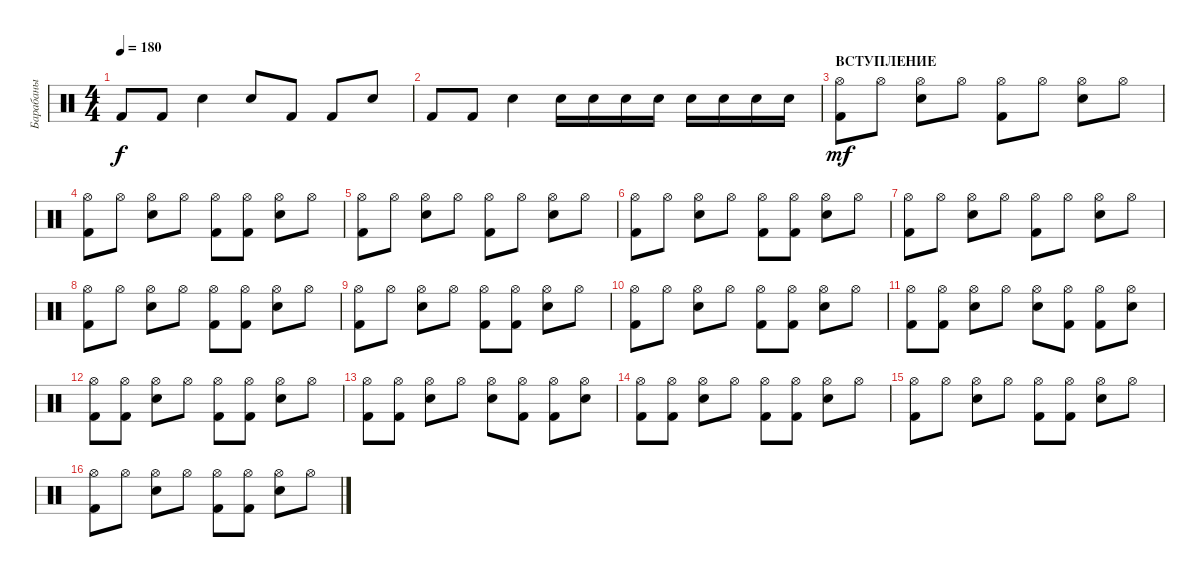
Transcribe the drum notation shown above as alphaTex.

\track ("Барабаны" "Барабаны") {instrument percussion}
\staff {score}
\articulation defaults
\ts (4 4)
\tempo 180
\clef neutral
\ks c "Kick (hit) 2".8{dy f} "Kick (hit) 2".8 "Snare (hit) 2".4 "Snare (hit) 2".8 "Kick (hit) 2".8 "Kick (hit) 2".8 "Snare (hit) 2".8
|
"Kick (hit) 2".8 "Kick (hit) 2".8 "Snare (hit) 2".4 "Snare (hit) 2".16 "Snare (hit) 2".16 "Snare (hit) 2".16 "Snare (hit) 2".16 "Snare (hit) 2".16 "Snare (hit) 2".16 "Snare (hit) 2".16 "Snare (hit) 2".16 |
\section ("" "ВСТУПЛЕНИЕ")
("Hi-Hat (open)" "Kick (hit) 2").8{dy mf} "Hi-Hat (open)".8 ("Hi-Hat (open)" "Snare (hit) 2").8 "Hi-Hat (open)".8 ("Hi-Hat (open)" "Kick (hit) 2").8 "Hi-Hat (open)".8 ("Hi-Hat (open)" "Snare (hit) 2").8 "Hi-Hat (open)".8 |
("Hi-Hat (open)" "Kick (hit) 2").8 "Hi-Hat (open)".8 ("Hi-Hat (open)" "Snare (hit) 2").8 "Hi-Hat (open)".8 ("Hi-Hat (open)" "Kick (hit) 2").8 ("Hi-Hat (open)" "Kick (hit) 2").8 ("Hi-Hat (open)" "Snare (hit) 2").8 "Hi-Hat (open)".8 |
("Hi-Hat (open)" "Kick (hit) 2").8 "Hi-Hat (open)".8 ("Hi-Hat (open)" "Snare (hit) 2").8 "Hi-Hat (open)".8 ("Hi-Hat (open)" "Kick (hit) 2").8 "Hi-Hat (open)".8 ("Hi-Hat (open)" "Snare (hit) 2").8 "Hi-Hat (open)".8 |
("Hi-Hat (open)" "Kick (hit) 2").8 "Hi-Hat (open)".8 ("Hi-Hat (open)" "Snare (hit) 2").8 "Hi-Hat (open)".8 ("Hi-Hat (open)" "Kick (hit) 2").8 ("Hi-Hat (open)" "Kick (hit) 2").8 ("Hi-Hat (open)" "Snare (hit) 2").8 "Hi-Hat (open)".8 |
("Hi-Hat (open)" "Kick (hit) 2").8 "Hi-Hat (open)".8 ("Hi-Hat (open)" "Snare (hit) 2").8 "Hi-Hat (open)".8 ("Hi-Hat (open)" "Kick (hit) 2").8 "Hi-Hat (open)".8 ("Hi-Hat (open)" "Snare (hit) 2").8 "Hi-Hat (open)".8 |
("Hi-Hat (open)" "Kick (hit) 2").8 "Hi-Hat (open)".8 ("Hi-Hat (open)" "Snare (hit) 2").8 "Hi-Hat (open)".8 ("Hi-Hat (open)" "Kick (hit) 2").8 ("Hi-Hat (open)" "Kick (hit) 2").8 ("Hi-Hat (open)" "Snare (hit) 2").8 "Hi-Hat (open)".8 |
("Hi-Hat (open)" "Kick (hit) 2").8 "Hi-Hat (open)".8 ("Hi-Hat (open)" "Snare (hit) 2").8 "Hi-Hat (open)".8 ("Hi-Hat (open)" "Kick (hit) 2").8 ("Hi-Hat (open)" "Kick (hit) 2").8 ("Hi-Hat (open)" "Snare (hit) 2").8 "Hi-Hat (open)".8 |
("Hi-Hat (open)" "Kick (hit) 2").8 "Hi-Hat (open)".8 ("Hi-Hat (open)" "Snare (hit) 2").8 "Hi-Hat (open)".8 ("Hi-Hat (open)" "Kick (hit) 2").8 ("Hi-Hat (open)" "Kick (hit) 2").8 ("Hi-Hat (open)" "Snare (hit) 2").8 "Hi-Hat (open)".8 |
("Hi-Hat (open)" "Kick (hit) 2").8 ("Hi-Hat (open)" "Kick (hit) 2").8 ("Hi-Hat (open)" "Snare (hit) 2").8 "Hi-Hat (open)".8 ("Hi-Hat (open)" "Snare (hit) 2").8 ("Hi-Hat (open)" "Kick (hit) 2").8 ("Hi-Hat (open)" "Kick (hit) 2").8 ("Hi-Hat (open)" "Snare (hit) 2").8 |
("Hi-Hat (open)" "Kick (hit) 2").8 ("Hi-Hat (open)" "Kick (hit) 2").8 ("Hi-Hat (open)" "Snare (hit) 2").8 "Hi-Hat (open)".8 ("Hi-Hat (open)" "Kick (hit) 2").8 ("Hi-Hat (open)" "Kick (hit) 2").8 ("Hi-Hat (open)" "Snare (hit) 2").8 "Hi-Hat (open)".8 |
("Hi-Hat (open)" "Kick (hit) 2").8 ("Hi-Hat (open)" "Kick (hit) 2").8 ("Hi-Hat (open)" "Snare (hit) 2").8 "Hi-Hat (open)".8 ("Hi-Hat (open)" "Snare (hit) 2").8 ("Hi-Hat (open)" "Kick (hit) 2").8 ("Hi-Hat (open)" "Kick (hit) 2").8 ("Hi-Hat (open)" "Snare (hit) 2").8 |
("Hi-Hat (open)" "Kick (hit) 2").8 ("Hi-Hat (open)" "Kick (hit) 2").8 ("Hi-Hat (open)" "Snare (hit) 2").8 "Hi-Hat (open)".8 ("Hi-Hat (open)" "Kick (hit) 2").8 ("Hi-Hat (open)" "Kick (hit) 2").8 ("Hi-Hat (open)" "Snare (hit) 2").8 "Hi-Hat (open)".8 |
("Hi-Hat (open)" "Kick (hit) 2").8 "Hi-Hat (open)".8 ("Hi-Hat (open)" "Snare (hit) 2").8 "Hi-Hat (open)".8 ("Hi-Hat (open)" "Kick (hit) 2").8 ("Hi-Hat (open)" "Kick (hit) 2").8 ("Hi-Hat (open)" "Snare (hit) 2").8 "Hi-Hat (open)".8 |
("Hi-Hat (open)" "Kick (hit) 2").8 "Hi-Hat (open)".8 ("Hi-Hat (open)" "Snare (hit) 2").8 "Hi-Hat (open)".8 ("Hi-Hat (open)" "Kick (hit) 2").8 ("Hi-Hat (open)" "Kick (hit) 2").8 ("Hi-Hat (open)" "Snare (hit) 2").8 "Hi-Hat (open)".8
